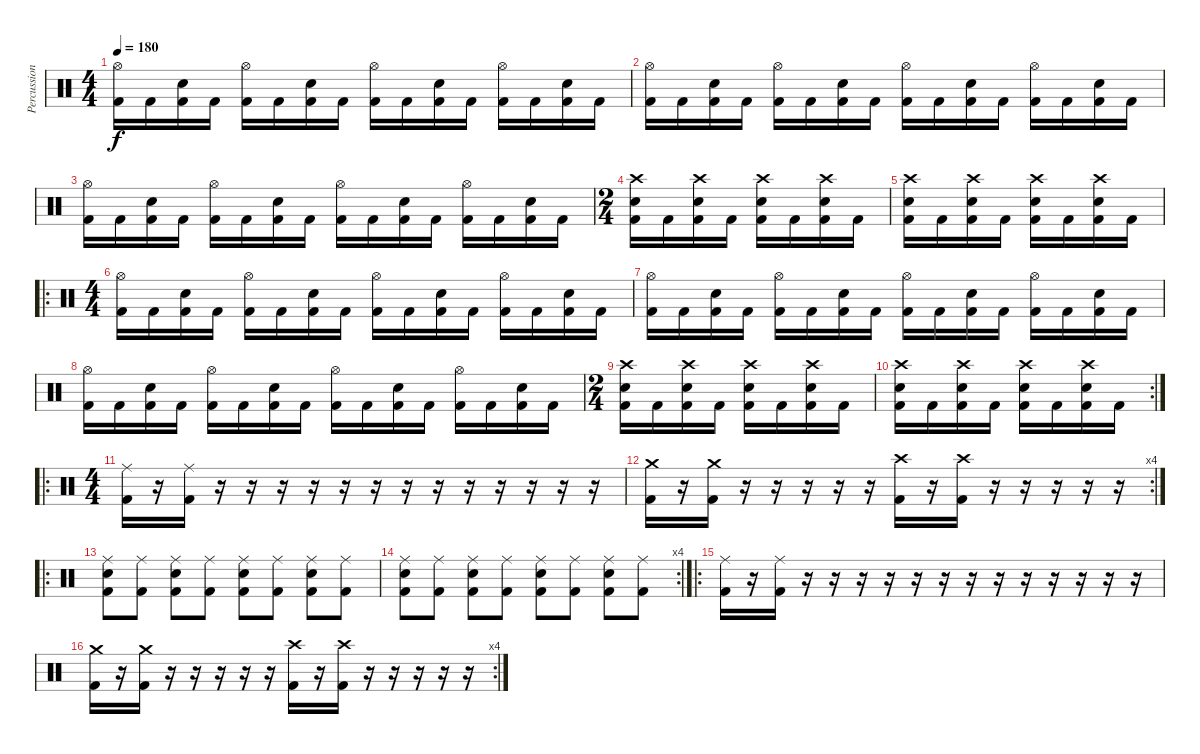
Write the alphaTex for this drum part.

\track ("Percussions" "Percussion") {instrument percussion}
\staff {score}
\articulation defaults
\ts (4 4)
\tempo 180
\clef neutral
\ks c
("Hi-Hat (open)" "Kick (hit) 2").16{dy f} "Kick (hit) 2".16 ("Electric Snare (hit)" "Kick (hit) 2").16 "Kick (hit) 2".16 ("Hi-Hat (open)" "Kick (hit) 2").16 "Kick (hit) 2".16 ("Electric Snare (hit)" "Kick (hit) 2").16 "Kick (hit) 2".16 ("Hi-Hat (open)" "Kick (hit) 2").16 "Kick (hit) 2".16 ("Electric Snare (hit)" "Kick (hit) 2").16 "Kick (hit) 2".16 ("Hi-Hat (open)" "Kick (hit) 2").16 "Kick (hit) 2".16 ("Electric Snare (hit)" "Kick (hit) 2").16 "Kick (hit) 2".16 |
("Hi-Hat (open)" "Kick (hit) 2").16 "Kick (hit) 2".16 ("Electric Snare (hit)" "Kick (hit) 2").16 "Kick (hit) 2".16 ("Hi-Hat (open)" "Kick (hit) 2").16 "Kick (hit) 2".16 ("Electric Snare (hit)" "Kick (hit) 2").16 "Kick (hit) 2".16 ("Hi-Hat (open)" "Kick (hit) 2").16 "Kick (hit) 2".16 ("Electric Snare (hit)" "Kick (hit) 2").16 "Kick (hit) 2".16 ("Hi-Hat (open)" "Kick (hit) 2").16 "Kick (hit) 2".16 ("Electric Snare (hit)" "Kick (hit) 2").16 "Kick (hit) 2".16 |
("Hi-Hat (open)" "Kick (hit) 2").16 "Kick (hit) 2".16 ("Electric Snare (hit)" "Kick (hit) 2").16 "Kick (hit) 2".16 ("Hi-Hat (open)" "Kick (hit) 2").16 "Kick (hit) 2".16 ("Electric Snare (hit)" "Kick (hit) 2").16 "Kick (hit) 2".16 ("Hi-Hat (open)" "Kick (hit) 2").16 "Kick (hit) 2".16 ("Electric Snare (hit)" "Kick (hit) 2").16 "Kick (hit) 2".16 ("Hi-Hat (open)" "Kick (hit) 2").16 "Kick (hit) 2".16 ("Electric Snare (hit)" "Kick (hit) 2").16 "Kick (hit) 2".16 |
\ts (2 4)
("Crash high (hit)" "Electric Snare (hit)" "Kick (hit) 2").16 "Kick (hit) 2".16 ("Crash high (hit)" "Electric Snare (hit)" "Kick (hit) 2").16 "Kick (hit) 2".16 ("Crash high (hit)" "Electric Snare (hit)" "Kick (hit) 2").16 "Kick (hit) 2".16 ("Crash high (hit)" "Electric Snare (hit)" "Kick (hit) 2").16 "Kick (hit) 2".16 |
("Crash high (hit)" "Electric Snare (hit)" "Kick (hit) 2").16 "Kick (hit) 2".16 ("Crash high (hit)" "Electric Snare (hit)" "Kick (hit) 2").16 "Kick (hit) 2".16 ("Crash high (hit)" "Electric Snare (hit)" "Kick (hit) 2").16 "Kick (hit) 2".16 ("Crash high (hit)" "Electric Snare (hit)" "Kick (hit) 2").16 "Kick (hit) 2".16 |
\ro
\ts (4 4)
("Hi-Hat (open)" "Kick (hit) 2").16 "Kick (hit) 2".16 ("Electric Snare (hit)" "Kick (hit) 2").16 "Kick (hit) 2".16 ("Hi-Hat (open)" "Kick (hit) 2").16 "Kick (hit) 2".16 ("Electric Snare (hit)" "Kick (hit) 2").16 "Kick (hit) 2".16 ("Hi-Hat (open)" "Kick (hit) 2").16 "Kick (hit) 2".16 ("Electric Snare (hit)" "Kick (hit) 2").16 "Kick (hit) 2".16 ("Hi-Hat (open)" "Kick (hit) 2").16 "Kick (hit) 2".16 ("Electric Snare (hit)" "Kick (hit) 2").16 "Kick (hit) 2".16 |
("Hi-Hat (open)" "Kick (hit) 2").16 "Kick (hit) 2".16 ("Electric Snare (hit)" "Kick (hit) 2").16 "Kick (hit) 2".16 ("Hi-Hat (open)" "Kick (hit) 2").16 "Kick (hit) 2".16 ("Electric Snare (hit)" "Kick (hit) 2").16 "Kick (hit) 2".16 ("Hi-Hat (open)" "Kick (hit) 2").16 "Kick (hit) 2".16 ("Electric Snare (hit)" "Kick (hit) 2").16 "Kick (hit) 2".16 ("Hi-Hat (open)" "Kick (hit) 2").16 "Kick (hit) 2".16 ("Electric Snare (hit)" "Kick (hit) 2").16 "Kick (hit) 2".16 |
("Hi-Hat (open)" "Kick (hit) 2").16 "Kick (hit) 2".16 ("Electric Snare (hit)" "Kick (hit) 2").16 "Kick (hit) 2".16 ("Hi-Hat (open)" "Kick (hit) 2").16 "Kick (hit) 2".16 ("Electric Snare (hit)" "Kick (hit) 2").16 "Kick (hit) 2".16 ("Hi-Hat (open)" "Kick (hit) 2").16 "Kick (hit) 2".16 ("Electric Snare (hit)" "Kick (hit) 2").16 "Kick (hit) 2".16 ("Hi-Hat (open)" "Kick (hit) 2").16 "Kick (hit) 2".16 ("Electric Snare (hit)" "Kick (hit) 2").16 "Kick (hit) 2".16 |
\ts (2 4)
("Crash high (hit)" "Electric Snare (hit)" "Kick (hit) 2").16 "Kick (hit) 2".16 ("Crash high (hit)" "Electric Snare (hit)" "Kick (hit) 2").16 "Kick (hit) 2".16 ("Crash high (hit)" "Electric Snare (hit)" "Kick (hit) 2").16 "Kick (hit) 2".16 ("Crash high (hit)" "Electric Snare (hit)" "Kick (hit) 2").16 "Kick (hit) 2".16 |
\rc 2
("Crash high (hit)" "Electric Snare (hit)" "Kick (hit) 2").16 "Kick (hit) 2".16 ("Crash high (hit)" "Electric Snare (hit)" "Kick (hit) 2").16 "Kick (hit) 2".16 ("Crash high (hit)" "Electric Snare (hit)" "Kick (hit) 2").16 "Kick (hit) 2".16 ("Crash high (hit)" "Electric Snare (hit)" "Kick (hit) 2").16 "Kick (hit) 2".16 |
\ro
\ts (4 4)
("Kick (hit) 2" "Ride (middle)").16 r.16 ("Kick (hit) 2" "Ride (middle)").16 r.16 r.16 r.16 r.16 r.16 r.16 r.16 r.16 r.16 r.16 r.16 r.16 r.16 |
\rc 4
("Kick (hit) 2" "Crash medium (hit)").16 r.16 ("Kick (hit) 2" "Crash medium (hit)").16 r.16 r.16 r.16 r.16 r.16 ("Kick (hit) 2" "Crash high (hit)").16 r.16 ("Kick (hit) 2" "Crash high (hit)").16 r.16 r.16 r.16 r.16 r.16 |
\ro
("Kick (hit) 2" "Ride (middle)" "Electric Snare (hit)").8 ("Kick (hit) 2" "Ride (middle)").8 ("Kick (hit) 2" "Ride (middle)" "Electric Snare (hit)").8 ("Kick (hit) 2" "Ride (middle)").8 ("Kick (hit) 2" "Ride (middle)" "Electric Snare (hit)").8 ("Kick (hit) 2" "Ride (middle)").8 ("Kick (hit) 2" "Ride (middle)" "Electric Snare (hit)").8 ("Kick (hit) 2" "Ride (middle)").8 |
\rc 4
("Kick (hit) 2" "Ride (middle)" "Electric Snare (hit)").8 ("Kick (hit) 2" "Ride (middle)").8 ("Kick (hit) 2" "Ride (middle)" "Electric Snare (hit)").8 ("Kick (hit) 2" "Ride (middle)").8 ("Kick (hit) 2" "Ride (middle)" "Electric Snare (hit)").8 ("Kick (hit) 2" "Ride (middle)").8 ("Kick (hit) 2" "Ride (middle)" "Electric Snare (hit)").8 ("Kick (hit) 2" "Ride (middle)").8 |
\ro
("Kick (hit) 2" "Ride (middle)").16 r.16 ("Kick (hit) 2" "Ride (middle)").16 r.16 r.16 r.16 r.16 r.16 r.16 r.16 r.16 r.16 r.16 r.16 r.16 r.16 |
\rc 4
("Kick (hit) 2" "Crash medium (hit)").16 r.16 ("Kick (hit) 2" "Crash medium (hit)").16 r.16 r.16 r.16 r.16 r.16 ("Kick (hit) 2" "Crash high (hit)").16 r.16 ("Kick (hit) 2" "Crash high (hit)").16 r.16 r.16 r.16 r.16 r.16
